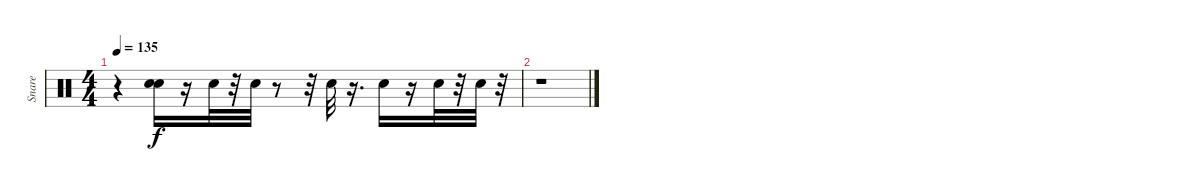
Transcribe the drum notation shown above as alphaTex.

\track ("Snare" "Snare") {instrument percussion}
\staff {score}
\articulation defaults
\ts (4 4)
\tempo 135
\clef neutral
\ks c
r.4{dy f} ("Snare (hit) 2" "Hand Clap (hit)").16 r.16 "Snare (hit) 2".32 r.32 "Snare (hit) 2".32 r.8 r.32 "Snare (hit) 2".32 r.16{d} "Snare (hit) 2".16 r.16 "Snare (hit) 2".32 r.32 "Snare (hit) 2".32 r.32 |
r.1
